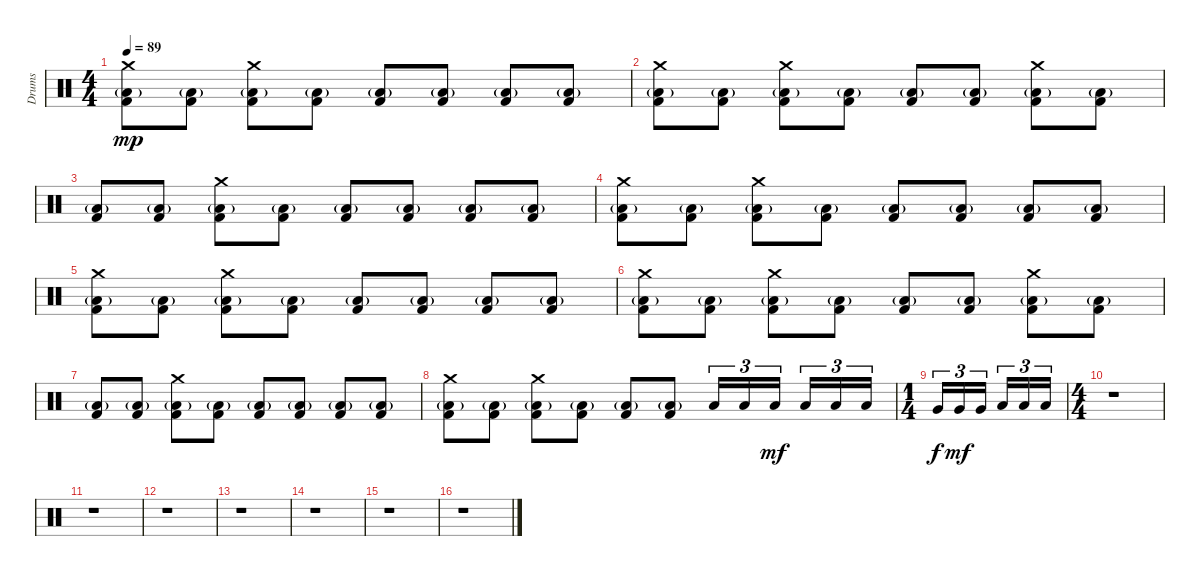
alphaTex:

\track ("Drums" "Drums") {instrument percussion}
\staff {score}
\articulation defaults
\ts (4 4)
\tempo 89
\clef neutral
\ks c
("Crash medium (hit)" "Low Floor Tom (hit)"{g} "Kick (hit) 2").8{dy mp} ("Low Floor Tom (hit)"{g} "Kick (hit) 2").8 ("Crash medium (hit)" "Low Floor Tom (hit)"{g} "Kick (hit) 2").8 ("Low Floor Tom (hit)"{g} "Kick (hit) 2").8 ("Low Floor Tom (hit)"{g} "Kick (hit) 2").8 ("Low Floor Tom (hit)"{g} "Kick (hit) 2").8 ("Low Floor Tom (hit)"{g} "Kick (hit) 2").8 ("Low Floor Tom (hit)"{g} "Kick (hit) 2").8 |
("Crash medium (hit)" "Low Floor Tom (hit)"{g} "Kick (hit) 2").8 ("Low Floor Tom (hit)"{g} "Kick (hit) 2").8 ("Crash medium (hit)" "Low Floor Tom (hit)"{g} "Kick (hit) 2").8 ("Low Floor Tom (hit)"{g} "Kick (hit) 2").8 ("Low Floor Tom (hit)"{g} "Kick (hit) 2").8 ("Low Floor Tom (hit)"{g} "Kick (hit) 2").8 ("Crash medium (hit)" "Low Floor Tom (hit)"{g} "Kick (hit) 2").8 ("Low Floor Tom (hit)"{g} "Kick (hit) 2").8 |
("Low Floor Tom (hit)"{g} "Kick (hit) 2").8 ("Low Floor Tom (hit)"{g} "Kick (hit) 2").8 ("Crash medium (hit)" "Low Floor Tom (hit)"{g} "Kick (hit) 2").8 ("Low Floor Tom (hit)"{g} "Kick (hit) 2").8 ("Low Floor Tom (hit)"{g} "Kick (hit) 2").8 ("Low Floor Tom (hit)"{g} "Kick (hit) 2").8 ("Low Floor Tom (hit)"{g} "Kick (hit) 2").8 ("Low Floor Tom (hit)"{g} "Kick (hit) 2").8 |
("Crash medium (hit)" "Low Floor Tom (hit)"{g} "Kick (hit) 2").8 ("Low Floor Tom (hit)"{g} "Kick (hit) 2").8 ("Crash medium (hit)" "Low Floor Tom (hit)"{g} "Kick (hit) 2").8 ("Low Floor Tom (hit)"{g} "Kick (hit) 2").8 ("Low Floor Tom (hit)"{g} "Kick (hit) 2").8 ("Low Floor Tom (hit)"{g} "Kick (hit) 2").8 ("Low Floor Tom (hit)"{g} "Kick (hit) 2").8 ("Low Floor Tom (hit)"{g} "Kick (hit) 2").8 |
("Crash medium (hit)" "Low Floor Tom (hit)"{g} "Kick (hit) 2").8 ("Low Floor Tom (hit)"{g} "Kick (hit) 2").8 ("Crash medium (hit)" "Low Floor Tom (hit)"{g} "Kick (hit) 2").8 ("Low Floor Tom (hit)"{g} "Kick (hit) 2").8 ("Low Floor Tom (hit)"{g} "Kick (hit) 2").8 ("Low Floor Tom (hit)"{g} "Kick (hit) 2").8 ("Low Floor Tom (hit)"{g} "Kick (hit) 2").8 ("Low Floor Tom (hit)"{g} "Kick (hit) 2").8 |
("Crash medium (hit)" "Low Floor Tom (hit)"{g} "Kick (hit) 2").8 ("Low Floor Tom (hit)"{g} "Kick (hit) 2").8 ("Crash medium (hit)" "Low Floor Tom (hit)"{g} "Kick (hit) 2").8 ("Low Floor Tom (hit)"{g} "Kick (hit) 2").8 ("Low Floor Tom (hit)"{g} "Kick (hit) 2").8 ("Low Floor Tom (hit)"{g} "Kick (hit) 2").8 ("Crash medium (hit)" "Low Floor Tom (hit)"{g} "Kick (hit) 2").8 ("Low Floor Tom (hit)"{g} "Kick (hit) 2").8 |
("Low Floor Tom (hit)"{g} "Kick (hit) 2").8 ("Low Floor Tom (hit)"{g} "Kick (hit) 2").8 ("Crash medium (hit)" "Low Floor Tom (hit)"{g} "Kick (hit) 2").8 ("Low Floor Tom (hit)"{g} "Kick (hit) 2").8 ("Low Floor Tom (hit)"{g} "Kick (hit) 2").8 ("Low Floor Tom (hit)"{g} "Kick (hit) 2").8 ("Low Floor Tom (hit)"{g} "Kick (hit) 2").8 ("Low Floor Tom (hit)"{g} "Kick (hit) 2").8 |
("Crash medium (hit)" "Low Floor Tom (hit)"{g} "Kick (hit) 2").8 ("Low Floor Tom (hit)"{g} "Kick (hit) 2").8 ("Crash medium (hit)" "Low Floor Tom (hit)"{g} "Kick (hit) 2").8 ("Low Floor Tom (hit)"{g} "Kick (hit) 2").8 ("Low Floor Tom (hit)"{g} "Kick (hit) 2").8 ("Low Floor Tom (hit)"{g} "Kick (hit) 2").8 "Low Tom (hit)".16{tu (3 2)} "Low Tom (hit)".16{tu (3 2)} "Low Tom (hit)".16{tu (3 2) dy mf} "Low Tom (hit)".16{tu (3 2)} "Low Tom (hit)".16{tu (3 2)} "Low Tom (hit)".16{tu (3 2)} |
\ts (1 4)
"Very Low Tom (hit)".16{tu (3 2) dy f} "Very Low Tom (hit)".16{tu (3 2) dy mf} "Very Low Tom (hit)".16{tu (3 2)} "Low Floor Tom (hit)".16{tu (3 2)} "Low Floor Tom (hit)".16{tu (3 2)} "Low Floor Tom (hit)".16{tu (3 2)} |
\ts (4 4)
r.1 |
r.1 |
r.1 |
r.1 |
r.1 |
r.1 |
r.1
